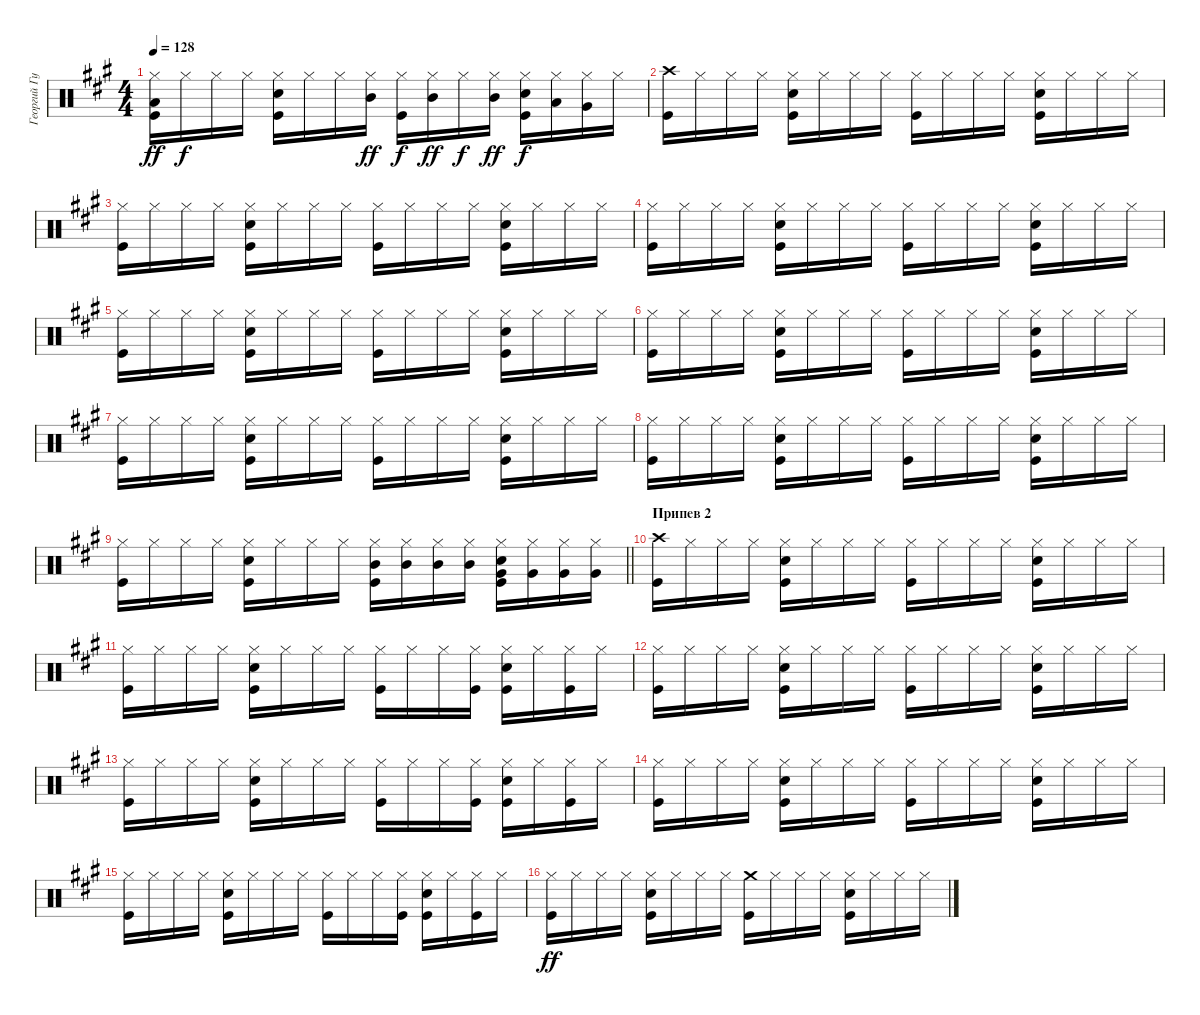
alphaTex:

\track ("Георгий Гурьянов" "Георгий Гу") {instrument percussion}
\staff {score}
\articulation defaults
\ts (4 4)
\tempo 128
\clef neutral
\ks f#minor
("Hi-Hat (closed)" "Kick (hit)" "Low Floor Tom (hit)").16{dy ff} "Hi-Hat (closed)".16{dy f} "Hi-Hat (closed)".16 "Hi-Hat (closed)".16 ("Hi-Hat (closed)" "Snare (hit) 2" "Kick (hit)").16 "Hi-Hat (closed)".16 "Hi-Hat (closed)".16 ("Mid Tom (hit)" "Hi-Hat (closed)").16{dy ff} ("Hi-Hat (closed)" "Kick (hit)").16{dy f} ("Mid Tom (hit)" "Hi-Hat (closed)").16{dy ff} "Hi-Hat (closed)".16{dy f} ("Mid Tom (hit)" "Hi-Hat (closed)").16{dy ff} ("Hi-Hat (closed)" "Snare (hit) 2" "Kick (hit)").16{dy f} ("Hi-Hat (closed)" "Low Tom (hit)").16 ("Very Low Tom (hit)" "Hi-Hat (closed)").16 "Hi-Hat (closed)".16 |
("Kick (hit)" "Crash high (hit)").16 "Hi-Hat (closed)".16 "Hi-Hat (closed)".16 "Hi-Hat (closed)".16 ("Hi-Hat (closed)" "Snare (hit) 2" "Kick (hit)").16 "Hi-Hat (closed)".16 "Hi-Hat (closed)".16 "Hi-Hat (closed)".16 ("Hi-Hat (closed)" "Kick (hit)").16 "Hi-Hat (closed)".16 "Hi-Hat (closed)".16 "Hi-Hat (closed)".16 ("Hi-Hat (closed)" "Snare (hit) 2" "Kick (hit)").16 "Hi-Hat (closed)".16 "Hi-Hat (closed)".16 "Hi-Hat (closed)".16 |
("Hi-Hat (closed)" "Kick (hit)").16 "Hi-Hat (closed)".16 "Hi-Hat (closed)".16 "Hi-Hat (closed)".16 ("Hi-Hat (closed)" "Snare (hit) 2" "Kick (hit)").16 "Hi-Hat (closed)".16 "Hi-Hat (closed)".16 "Hi-Hat (closed)".16 ("Hi-Hat (closed)" "Kick (hit)").16 "Hi-Hat (closed)".16 "Hi-Hat (closed)".16 "Hi-Hat (closed)".16 ("Hi-Hat (closed)" "Snare (hit) 2" "Kick (hit)").16 "Hi-Hat (closed)".16 "Hi-Hat (closed)".16 "Hi-Hat (closed)".16 |
("Hi-Hat (closed)" "Kick (hit)").16 "Hi-Hat (closed)".16 "Hi-Hat (closed)".16 "Hi-Hat (closed)".16 ("Hi-Hat (closed)" "Snare (hit) 2" "Kick (hit)").16 "Hi-Hat (closed)".16 "Hi-Hat (closed)".16 "Hi-Hat (closed)".16 ("Hi-Hat (closed)" "Kick (hit)").16 "Hi-Hat (closed)".16 "Hi-Hat (closed)".16 "Hi-Hat (closed)".16 ("Hi-Hat (closed)" "Snare (hit) 2" "Kick (hit)").16 "Hi-Hat (closed)".16 "Hi-Hat (closed)".16 "Hi-Hat (closed)".16 |
("Hi-Hat (closed)" "Kick (hit)").16 "Hi-Hat (closed)".16 "Hi-Hat (closed)".16 "Hi-Hat (closed)".16 ("Hi-Hat (closed)" "Snare (hit) 2" "Kick (hit)").16 "Hi-Hat (closed)".16 "Hi-Hat (closed)".16 "Hi-Hat (closed)".16 ("Hi-Hat (closed)" "Kick (hit)").16 "Hi-Hat (closed)".16 "Hi-Hat (closed)".16 "Hi-Hat (closed)".16 ("Hi-Hat (closed)" "Snare (hit) 2" "Kick (hit)").16 "Hi-Hat (closed)".16 "Hi-Hat (closed)".16 "Hi-Hat (closed)".16 |
("Hi-Hat (closed)" "Kick (hit)").16 "Hi-Hat (closed)".16 "Hi-Hat (closed)".16 "Hi-Hat (closed)".16 ("Hi-Hat (closed)" "Snare (hit) 2" "Kick (hit)").16 "Hi-Hat (closed)".16 "Hi-Hat (closed)".16 "Hi-Hat (closed)".16 ("Hi-Hat (closed)" "Kick (hit)").16 "Hi-Hat (closed)".16 "Hi-Hat (closed)".16 "Hi-Hat (closed)".16 ("Hi-Hat (closed)" "Snare (hit) 2" "Kick (hit)").16 "Hi-Hat (closed)".16 "Hi-Hat (closed)".16 "Hi-Hat (closed)".16 |
("Hi-Hat (closed)" "Kick (hit)").16 "Hi-Hat (closed)".16 "Hi-Hat (closed)".16 "Hi-Hat (closed)".16 ("Hi-Hat (closed)" "Snare (hit) 2" "Kick (hit)").16 "Hi-Hat (closed)".16 "Hi-Hat (closed)".16 "Hi-Hat (closed)".16 ("Hi-Hat (closed)" "Kick (hit)").16 "Hi-Hat (closed)".16 "Hi-Hat (closed)".16 "Hi-Hat (closed)".16 ("Hi-Hat (closed)" "Snare (hit) 2" "Kick (hit)").16 "Hi-Hat (closed)".16 "Hi-Hat (closed)".16 "Hi-Hat (closed)".16 |
("Hi-Hat (closed)" "Kick (hit)").16 "Hi-Hat (closed)".16 "Hi-Hat (closed)".16 "Hi-Hat (closed)".16 ("Hi-Hat (closed)" "Snare (hit) 2" "Kick (hit)").16 "Hi-Hat (closed)".16 "Hi-Hat (closed)".16 "Hi-Hat (closed)".16 ("Hi-Hat (closed)" "Kick (hit)").16 "Hi-Hat (closed)".16 "Hi-Hat (closed)".16 "Hi-Hat (closed)".16 ("Hi-Hat (closed)" "Snare (hit) 2" "Kick (hit)").16 "Hi-Hat (closed)".16 "Hi-Hat (closed)".16 "Hi-Hat (closed)".16 |
\barLineRight lightlight
("Hi-Hat (closed)" "Kick (hit)").16 "Hi-Hat (closed)".16 "Hi-Hat (closed)".16 "Hi-Hat (closed)".16 ("Hi-Hat (closed)" "Snare (hit) 2" "Kick (hit)").16 "Hi-Hat (closed)".16 "Hi-Hat (closed)".16 "Hi-Hat (closed)".16 ("Mid Tom (hit)" "Hi-Hat (closed)" "Kick (hit)").16 ("Mid Tom (hit)" "Hi-Hat (closed)").16 ("Mid Tom (hit)" "Hi-Hat (closed)").16 ("Mid Tom (hit)" "Hi-Hat (closed)").16 ("Very Low Tom (hit)" "Hi-Hat (closed)" "Snare (hit) 2" "Kick (hit)").16 ("Very Low Tom (hit)" "Hi-Hat (closed)").16 ("Very Low Tom (hit)" "Hi-Hat (closed)").16 ("Very Low Tom (hit)" "Hi-Hat (closed)").16 |
\section ("" "Припев 2")
("Kick (hit)" "Crash high (hit)").16 "Hi-Hat (closed)".16 "Hi-Hat (closed)".16 "Hi-Hat (closed)".16 ("Hi-Hat (closed)" "Snare (hit) 2" "Kick (hit)").16 "Hi-Hat (closed)".16 "Hi-Hat (closed)".16 "Hi-Hat (closed)".16 ("Hi-Hat (closed)" "Kick (hit)").16 "Hi-Hat (closed)".16 "Hi-Hat (closed)".16 "Hi-Hat (closed)".16 ("Hi-Hat (closed)" "Snare (hit) 2" "Kick (hit)").16 "Hi-Hat (closed)".16 "Hi-Hat (closed)".16 "Hi-Hat (closed)".16 |
("Hi-Hat (closed)" "Kick (hit)").16 "Hi-Hat (closed)".16 "Hi-Hat (closed)".16 "Hi-Hat (closed)".16 ("Hi-Hat (closed)" "Snare (hit) 2" "Kick (hit)").16 "Hi-Hat (closed)".16 "Hi-Hat (closed)".16 "Hi-Hat (closed)".16 ("Hi-Hat (closed)" "Kick (hit)").16 "Hi-Hat (closed)".16 "Hi-Hat (closed)".16 ("Hi-Hat (closed)" "Kick (hit)").16 ("Hi-Hat (closed)" "Snare (hit) 2" "Kick (hit)").16 "Hi-Hat (closed)".16 ("Hi-Hat (closed)" "Kick (hit)").16 "Hi-Hat (closed)".16 |
("Hi-Hat (closed)" "Kick (hit)").16 "Hi-Hat (closed)".16 "Hi-Hat (closed)".16 "Hi-Hat (closed)".16 ("Hi-Hat (closed)" "Snare (hit) 2" "Kick (hit)").16 "Hi-Hat (closed)".16 "Hi-Hat (closed)".16 "Hi-Hat (closed)".16 ("Hi-Hat (closed)" "Kick (hit)").16 "Hi-Hat (closed)".16 "Hi-Hat (closed)".16 "Hi-Hat (closed)".16 ("Hi-Hat (closed)" "Snare (hit) 2" "Kick (hit)").16 "Hi-Hat (closed)".16 "Hi-Hat (closed)".16 "Hi-Hat (closed)".16 |
("Hi-Hat (closed)" "Kick (hit)").16 "Hi-Hat (closed)".16 "Hi-Hat (closed)".16 "Hi-Hat (closed)".16 ("Hi-Hat (closed)" "Snare (hit) 2" "Kick (hit)").16 "Hi-Hat (closed)".16 "Hi-Hat (closed)".16 "Hi-Hat (closed)".16 ("Hi-Hat (closed)" "Kick (hit)").16 "Hi-Hat (closed)".16 "Hi-Hat (closed)".16 ("Hi-Hat (closed)" "Kick (hit)").16 ("Hi-Hat (closed)" "Snare (hit) 2" "Kick (hit)").16 "Hi-Hat (closed)".16 ("Hi-Hat (closed)" "Kick (hit)").16 "Hi-Hat (closed)".16 |
("Hi-Hat (closed)" "Kick (hit)").16 "Hi-Hat (closed)".16 "Hi-Hat (closed)".16 "Hi-Hat (closed)".16 ("Hi-Hat (closed)" "Snare (hit) 2" "Kick (hit)").16 "Hi-Hat (closed)".16 "Hi-Hat (closed)".16 "Hi-Hat (closed)".16 ("Hi-Hat (closed)" "Kick (hit)").16 "Hi-Hat (closed)".16 "Hi-Hat (closed)".16 "Hi-Hat (closed)".16 ("Hi-Hat (closed)" "Snare (hit) 2" "Kick (hit)").16 "Hi-Hat (closed)".16 "Hi-Hat (closed)".16 "Hi-Hat (closed)".16 |
("Hi-Hat (closed)" "Kick (hit)").16 "Hi-Hat (closed)".16 "Hi-Hat (closed)".16 "Hi-Hat (closed)".16 ("Hi-Hat (closed)" "Snare (hit) 2" "Kick (hit)").16 "Hi-Hat (closed)".16 "Hi-Hat (closed)".16 "Hi-Hat (closed)".16 ("Hi-Hat (closed)" "Kick (hit)").16 "Hi-Hat (closed)".16 "Hi-Hat (closed)".16 ("Hi-Hat (closed)" "Kick (hit)").16 ("Hi-Hat (closed)" "Snare (hit) 2" "Kick (hit)").16 "Hi-Hat (closed)".16 ("Hi-Hat (closed)" "Kick (hit)").16 "Hi-Hat (closed)".16 |
("Hi-Hat (closed)" "Kick (hit)").16{dy ff} "Hi-Hat (closed)".16 "Hi-Hat (closed)".16 "Hi-Hat (closed)".16 ("Hi-Hat (closed)" "Snare (hit) 2" "Kick (hit)").16 "Hi-Hat (closed)".16 "Hi-Hat (closed)".16 "Hi-Hat (closed)".16 ("Crash medium (hit)" "Kick (hit)").16 "Hi-Hat (closed)".16 "Hi-Hat (closed)".16 "Hi-Hat (closed)".16 ("Hi-Hat (closed)" "Snare (hit) 2" "Kick (hit)").16 "Hi-Hat (closed)".16 "Hi-Hat (closed)".16 "Hi-Hat (closed)".16
